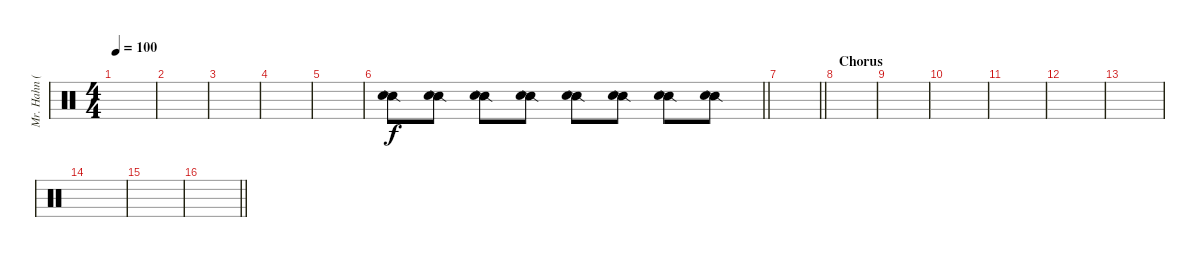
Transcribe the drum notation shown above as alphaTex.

\track ("Mr. Hahn (Sampler)" "Mr. Hahn (") {instrument percussion}
\staff {score}
\articulation defaults
\ts (4 4)
\tempo 100
\clef neutral
\ks c
|
|
|
|
|
\barLineRight lightlight
("Snare (side stick) 2" "Hand Clap (hit)").8 ("Snare (side stick) 2" "Hand Clap (hit)").8 ("Snare (side stick) 2" "Hand Clap (hit)").8 ("Snare (side stick) 2" "Hand Clap (hit)").8 ("Snare (side stick) 2" "Hand Clap (hit)").8 ("Snare (side stick) 2" "Hand Clap (hit)").8 ("Snare (side stick) 2" "Hand Clap (hit)").8 ("Snare (side stick) 2" "Hand Clap (hit)").8 |
\barLineRight lightlight
|
\section ("" "Chorus")
|
|
|
|
|
|
|
|
\barLineRight lightlight
